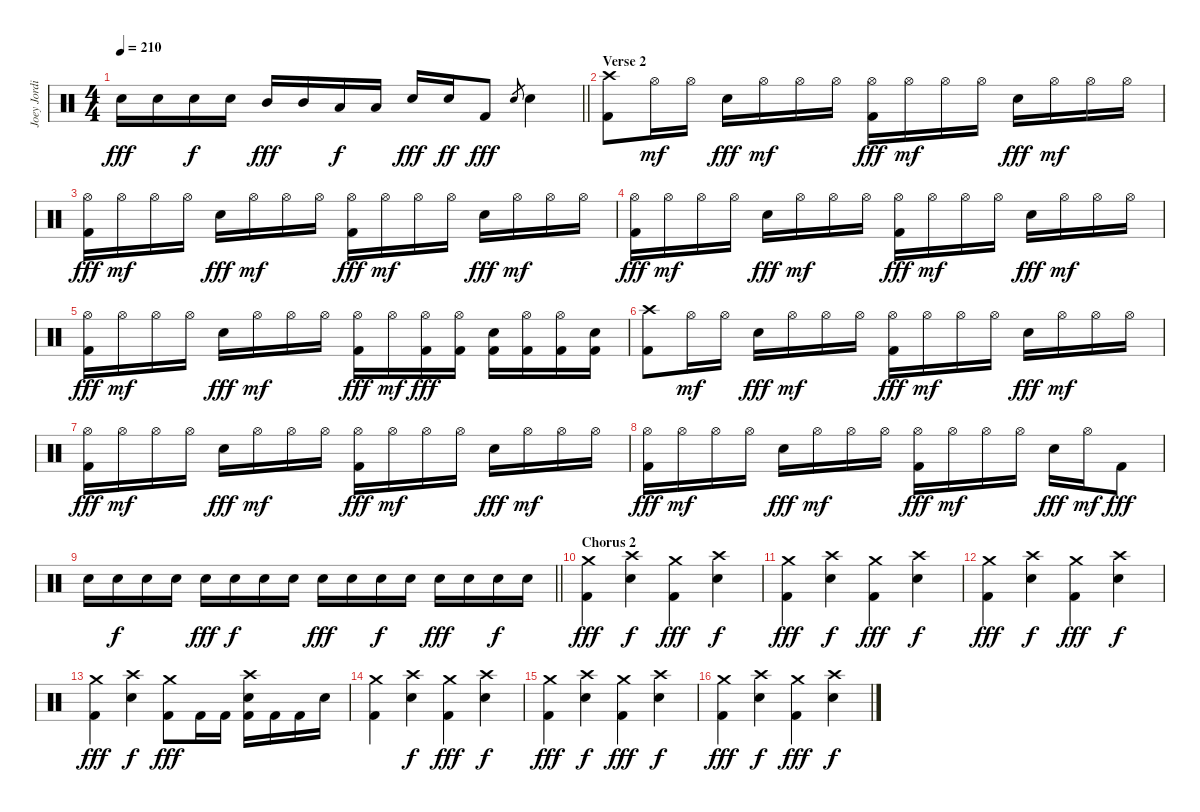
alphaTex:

\track ("Joey Jordison" "Joey Jordi") {instrument percussion}
\staff {score}
\articulation defaults
\ts (4 4)
\tempo 210
\clef neutral
\barLineRight lightlight
\ks c "Electric Snare (hit)".16{dy fff} "Electric Snare (hit)".16 "Electric Snare (hit)".16{dy f} "Electric Snare (hit)".16 "Mid Tom (hit)".16{dy fff} "Mid Tom (hit)".16 "Low Tom (hit)".16{dy f} "Low Tom (hit)".16 "Electric Snare (hit)".16{dy fff} "Electric Snare (hit)".16{dy ff} "Kick (hit) 2".8{dy fff} "Electric Snare (hit)".8{gr} "Electric Snare (hit)".4
|
\section ("" "Verse 2")
("Crash high (hit)" "Kick (hit) 2").8 "Hi-Hat (open)".16{dy mf} "Hi-Hat (open)".16 "Electric Snare (hit)".16{dy fff} "Hi-Hat (open)".16{dy mf} "Hi-Hat (open)".16 "Hi-Hat (open)".16 ("Hi-Hat (open)" "Kick (hit) 2").16{dy fff} "Hi-Hat (open)".16{dy mf} "Hi-Hat (open)".16 "Hi-Hat (open)".16 "Electric Snare (hit)".16{dy fff} "Hi-Hat (open)".16{dy mf} "Hi-Hat (open)".16 "Hi-Hat (open)".16 |
("Hi-Hat (open)" "Kick (hit) 2").16{dy fff} "Hi-Hat (open)".16{dy mf} "Hi-Hat (open)".16 "Hi-Hat (open)".16 "Electric Snare (hit)".16{dy fff} "Hi-Hat (open)".16{dy mf} "Hi-Hat (open)".16 "Hi-Hat (open)".16 ("Hi-Hat (open)" "Kick (hit) 2").16{dy fff} "Hi-Hat (open)".16{dy mf} "Hi-Hat (open)".16 "Hi-Hat (open)".16 "Electric Snare (hit)".16{dy fff} "Hi-Hat (open)".16{dy mf} "Hi-Hat (open)".16 "Hi-Hat (open)".16 |
("Hi-Hat (open)" "Kick (hit) 2").16{dy fff} "Hi-Hat (open)".16{dy mf} "Hi-Hat (open)".16 "Hi-Hat (open)".16 "Electric Snare (hit)".16{dy fff} "Hi-Hat (open)".16{dy mf} "Hi-Hat (open)".16 "Hi-Hat (open)".16 ("Hi-Hat (open)" "Kick (hit) 2").16{dy fff} "Hi-Hat (open)".16{dy mf} "Hi-Hat (open)".16 "Hi-Hat (open)".16 "Electric Snare (hit)".16{dy fff} "Hi-Hat (open)".16{dy mf} "Hi-Hat (open)".16 "Hi-Hat (open)".16 |
("Hi-Hat (open)" "Kick (hit) 2").16{dy fff} "Hi-Hat (open)".16{dy mf} "Hi-Hat (open)".16 "Hi-Hat (open)".16 "Electric Snare (hit)".16{dy fff} "Hi-Hat (open)".16{dy mf} "Hi-Hat (open)".16 "Hi-Hat (open)".16 ("Hi-Hat (open)" "Kick (hit) 2").16{dy fff} "Hi-Hat (open)".16{dy mf} ("Hi-Hat (open)" "Kick (hit) 2").16{dy fff} ("Hi-Hat (open)" "Kick (hit) 2").16 ("Electric Snare (hit)" "Kick (hit) 2").16 ("Hi-Hat (open)" "Kick (hit) 2").16 ("Hi-Hat (open)" "Kick (hit) 2").16 ("Electric Snare (hit)" "Kick (hit) 2").16 |
("Crash high (hit)" "Kick (hit) 2").8 "Hi-Hat (open)".16{dy mf} "Hi-Hat (open)".16 "Electric Snare (hit)".16{dy fff} "Hi-Hat (open)".16{dy mf} "Hi-Hat (open)".16 "Hi-Hat (open)".16 ("Hi-Hat (open)" "Kick (hit) 2").16{dy fff} "Hi-Hat (open)".16{dy mf} "Hi-Hat (open)".16 "Hi-Hat (open)".16 "Electric Snare (hit)".16{dy fff} "Hi-Hat (open)".16{dy mf} "Hi-Hat (open)".16 "Hi-Hat (open)".16 |
("Hi-Hat (open)" "Kick (hit) 2").16{dy fff} "Hi-Hat (open)".16{dy mf} "Hi-Hat (open)".16 "Hi-Hat (open)".16 "Electric Snare (hit)".16{dy fff} "Hi-Hat (open)".16{dy mf} "Hi-Hat (open)".16 "Hi-Hat (open)".16 ("Hi-Hat (open)" "Kick (hit) 2").16{dy fff} "Hi-Hat (open)".16{dy mf} "Hi-Hat (open)".16 "Hi-Hat (open)".16 "Electric Snare (hit)".16{dy fff} "Hi-Hat (open)".16{dy mf} "Hi-Hat (open)".16 "Hi-Hat (open)".16 |
("Hi-Hat (open)" "Kick (hit) 2").16{dy fff} "Hi-Hat (open)".16{dy mf} "Hi-Hat (open)".16 "Hi-Hat (open)".16 "Electric Snare (hit)".16{dy fff} "Hi-Hat (open)".16{dy mf} "Hi-Hat (open)".16 "Hi-Hat (open)".16 ("Hi-Hat (open)" "Kick (hit) 2").16{dy fff} "Hi-Hat (open)".16{dy mf} "Hi-Hat (open)".16 "Hi-Hat (open)".16 "Electric Snare (hit)".16{dy fff} "Hi-Hat (open)".16{dy mf} "Kick (hit) 2".8{dy fff} |
\barLineRight lightlight "Electric Snare (hit)".16 "Electric Snare (hit)".16{dy f} "Electric Snare (hit)".16 "Electric Snare (hit)".16 "Electric Snare (hit)".16{dy fff} "Electric Snare (hit)".16{dy f} "Electric Snare (hit)".16 "Electric Snare (hit)".16 "Electric Snare (hit)".16{dy fff} "Electric Snare (hit)".16 "Electric Snare (hit)".16{dy f} "Electric Snare (hit)".16 "Electric Snare (hit)".16{dy fff} "Electric Snare (hit)".16 "Electric Snare (hit)".16{dy f} "Electric Snare (hit)".16
|
\section ("" "Chorus 2")
("Crash medium (hit)" "Kick (hit) 2").4{dy fff} ("Crash high (hit)" "Electric Snare (hit)").4{dy f} ("Crash medium (hit)" "Kick (hit) 2").4{dy fff} ("Crash high (hit)" "Electric Snare (hit)").4{dy f} |
("Crash medium (hit)" "Kick (hit) 2").4{dy fff} ("Crash high (hit)" "Electric Snare (hit)").4{dy f} ("Crash medium (hit)" "Kick (hit) 2").4{dy fff} ("Crash high (hit)" "Electric Snare (hit)").4{dy f} |
("Crash medium (hit)" "Kick (hit) 2").4{dy fff} ("Crash high (hit)" "Electric Snare (hit)").4{dy f} ("Crash medium (hit)" "Kick (hit) 2").4{dy fff} ("Crash high (hit)" "Electric Snare (hit)").4{dy f} |
("Crash medium (hit)" "Kick (hit) 2").4{dy fff} ("Crash high (hit)" "Electric Snare (hit)").4{dy f} ("Crash medium (hit)" "Kick (hit) 2").8{dy fff} "Kick (hit) 2".16 "Kick (hit) 2".16 ("Crash high (hit)" "Electric Snare (hit)" "Kick (hit) 2").16 "Kick (hit) 2".16 "Kick (hit) 2".16 "Electric Snare (hit)".16 |
("Crash medium (hit)" "Kick (hit) 2").4 ("Crash high (hit)" "Electric Snare (hit)").4{dy f} ("Crash medium (hit)" "Kick (hit) 2").4{dy fff} ("Crash high (hit)" "Electric Snare (hit)").4{dy f} |
("Crash medium (hit)" "Kick (hit) 2").4{dy fff} ("Crash high (hit)" "Electric Snare (hit)").4{dy f} ("Crash medium (hit)" "Kick (hit) 2").4{dy fff} ("Crash high (hit)" "Electric Snare (hit)").4{dy f} |
("Crash medium (hit)" "Kick (hit) 2").4{dy fff} ("Crash high (hit)" "Electric Snare (hit)").4{dy f} ("Crash medium (hit)" "Kick (hit) 2").4{dy fff} ("Crash high (hit)" "Electric Snare (hit)").4{dy f}
